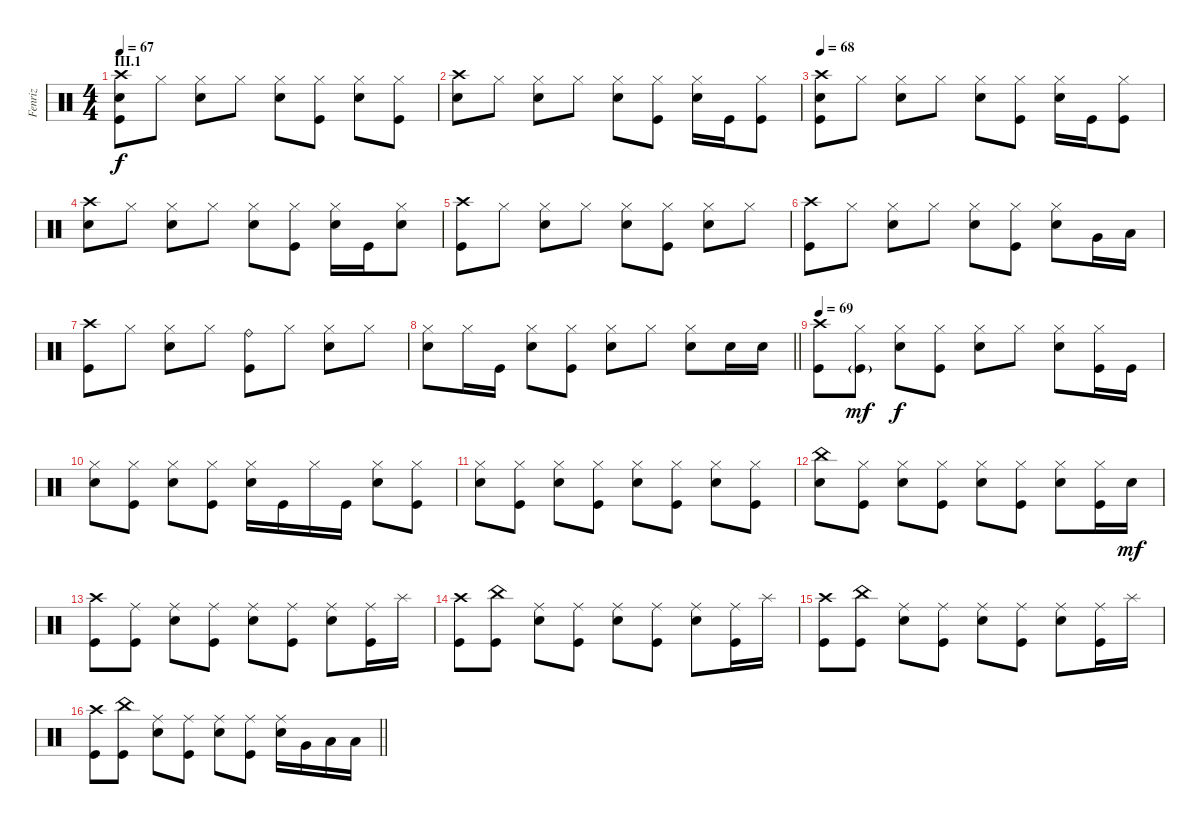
\track ("Fenriz" "Fenriz") {instrument percussion}
\staff {score}
\articulation defaults
\ts (4 4)
\section ("" "III.1")
\tempo 67
\clef neutral
\ks c
("Crash high (hit)" "Snare (hit) 2" "Kick (hit)").8{dy f} "Hi-Hat (closed)".8 ("Hi-Hat (closed)" "Snare (hit) 2").8 "Hi-Hat (closed)".8 ("Hi-Hat (closed)" "Snare (hit) 2").8 ("Hi-Hat (closed)" "Kick (hit)").8 ("Hi-Hat (closed)" "Snare (hit) 2").8 ("Hi-Hat (closed)" "Kick (hit)").8 |
("Crash high (hit)" "Snare (hit) 2").8 "Hi-Hat (closed)".8 ("Hi-Hat (closed)" "Snare (hit) 2").8 "Hi-Hat (closed)".8 ("Hi-Hat (closed)" "Snare (hit) 2").8 ("Hi-Hat (closed)" "Kick (hit)").8 ("Hi-Hat (closed)" "Snare (hit) 2").16 "Kick (hit)".16 ("Hi-Hat (closed)" "Kick (hit)").8 |
\tempo 68
("Crash high (hit)" "Snare (hit) 2" "Kick (hit)").8 "Hi-Hat (closed)".8 ("Hi-Hat (closed)" "Snare (hit) 2").8 "Hi-Hat (closed)".8 ("Hi-Hat (closed)" "Snare (hit) 2").8 ("Hi-Hat (closed)" "Kick (hit)").8 ("Hi-Hat (closed)" "Snare (hit) 2").16 "Kick (hit)".16 ("Hi-Hat (closed)" "Kick (hit)").8 |
("Crash high (hit)" "Snare (hit) 2").8 "Hi-Hat (closed)".8 ("Hi-Hat (closed)" "Snare (hit) 2").8 "Hi-Hat (closed)".8 ("Hi-Hat (closed)" "Snare (hit) 2").8 ("Hi-Hat (closed)" "Kick (hit)").8 ("Hi-Hat (closed)" "Snare (hit) 2").16 "Kick (hit)".16 ("Hi-Hat (closed)" "Snare (hit) 2").8 |
("Crash high (hit)" "Kick (hit)").8 "Hi-Hat (closed)".8 ("Hi-Hat (closed)" "Snare (hit) 2").8 "Hi-Hat (closed)".8 ("Hi-Hat (closed)" "Snare (hit) 2").8 ("Hi-Hat (closed)" "Kick (hit)").8 ("Hi-Hat (closed)" "Snare (hit) 2").8 "Hi-Hat (closed)".8 |
("Crash high (hit)" "Kick (hit)").8 "Hi-Hat (closed)".8 ("Hi-Hat (closed)" "Snare (hit) 2").8 "Hi-Hat (closed)".8 ("Hi-Hat (closed)" "Snare (hit) 2").8 ("Hi-Hat (closed)" "Kick (hit)").8 ("Hi-Hat (closed)" "Snare (hit) 2").8 "Very Low Tom (hit)".16 "Low Floor Tom (hit)".16 |
("Crash high (hit)" "Kick (hit)").8 "Hi-Hat (closed)".8 ("Hi-Hat (closed)" "Snare (hit) 2").8 "Hi-Hat (closed)".8 ("Ride (bell)" "Kick (hit)").8 "Hi-Hat (closed)".8 ("Hi-Hat (closed)" "Snare (hit) 2").8 "Hi-Hat (closed)".8 |
\barLineRight lightlight
("Hi-Hat (closed)" "Snare (hit) 2").8 "Hi-Hat (closed)".16 "Kick (hit)".16 ("Hi-Hat (closed)" "Snare (hit) 2").8 ("Hi-Hat (closed)" "Kick (hit)").8 ("Hi-Hat (closed)" "Snare (hit) 2").8 "Hi-Hat (closed)".8 ("Hi-Hat (closed)" "Snare (hit) 2").8 "Snare (hit) 2".16 "Snare (hit) 2".16 |
\tempo 69
("Kick (hit)" "Crash high (hit)").8{volume 6} ("Kick (hit)"{g} "Hi-Hat (closed)").8{dy mf} ("Snare (hit) 2" "Hi-Hat (closed)").8{dy f} ("Kick (hit)" "Hi-Hat (closed)").8 ("Snare (hit) 2" "Hi-Hat (closed)").8 "Hi-Hat (closed)".8 ("Snare (hit) 2" "Hi-Hat (closed)").8 ("Kick (hit)" "Hi-Hat (closed)").16 "Kick (hit)".16 |
("Snare (hit) 2" "Hi-Hat (closed)").8 ("Kick (hit)" "Hi-Hat (closed)").8 ("Snare (hit) 2" "Hi-Hat (closed)").8 ("Kick (hit)" "Hi-Hat (closed)").8 ("Snare (hit) 2" "Hi-Hat (closed)").16 "Kick (hit)".16 "Hi-Hat (closed)".16 "Kick (hit)".16 ("Snare (hit) 2" "Hi-Hat (closed)").8 ("Kick (hit)" "Hi-Hat (closed)").8 |
("Snare (hit) 2" "Hi-Hat (closed)").8 ("Kick (hit)" "Hi-Hat (closed)").8 ("Snare (hit) 2" "Hi-Hat (closed)").8 ("Kick (hit)" "Hi-Hat (closed)").8 ("Snare (hit) 2" "Hi-Hat (closed)").8 ("Kick (hit)" "Hi-Hat (closed)").8 ("Snare (hit) 2" "Hi-Hat (closed)").8 ("Kick (hit)" "Hi-Hat (closed)").8 |
("Snare (hit) 2" "China (hit)").8 ("Kick (hit)" "Hi-Hat (closed)").8 ("Snare (hit) 2" "Hi-Hat (closed)").8 ("Kick (hit)" "Hi-Hat (closed)").8 ("Snare (hit) 2" "Hi-Hat (closed)").8 ("Kick (hit)" "Hi-Hat (closed)").8 ("Snare (hit) 2" "Hi-Hat (closed)").8 ("Kick (hit)" "Hi-Hat (closed)").16 "Snare (hit) 2".16{dy mf} |
("Kick (hit)" "Crash high (hit)").8{volume 1} ("Kick (hit)" "Ride (middle)").8 ("Snare (hit) 2" "Ride (middle)").8 ("Kick (hit)" "Ride (middle)").8 ("Snare (hit) 2" "Ride (middle)").8 ("Kick (hit)" "Ride (middle)").8 ("Snare (hit) 2" "Ride (middle)").8 ("Kick (hit)" "Ride (middle)").16 "Splash (hit)".16 |
("Kick (hit)" "Crash high (hit)").8 ("Kick (hit)" "China (hit)").8 ("Snare (hit) 2" "Ride (middle)").8 ("Kick (hit)" "Ride (middle)").8 ("Snare (hit) 2" "Ride (middle)").8 ("Kick (hit)" "Ride (middle)").8 ("Snare (hit) 2" "Ride (middle)").8 ("Kick (hit)" "Ride (middle)").16 "Splash (hit)".16 |
("Kick (hit)" "Crash high (hit)").8 ("Kick (hit)" "China (hit)").8 ("Snare (hit) 2" "Ride (middle)").8 ("Kick (hit)" "Ride (middle)").8 ("Snare (hit) 2" "Ride (middle)").8 ("Kick (hit)" "Ride (middle)").8 ("Snare (hit) 2" "Ride (middle)").8 ("Kick (hit)" "Ride (middle)").16 "Splash (hit)".16 |
\barLineRight lightlight
("Kick (hit)" "Crash high (hit)").8 ("Kick (hit)" "China (hit)").8 ("Snare (hit) 2" "Ride (middle)").8 ("Kick (hit)" "Ride (middle)").8 ("Snare (hit) 2" "Ride (middle)").8 ("Kick (hit)" "Ride (middle)").8 ("Snare (hit) 2" "Ride (middle)").16 "Very Low Tom (hit)".16 "Low Floor Tom (hit)".16 "Low Floor Tom (hit)".16
